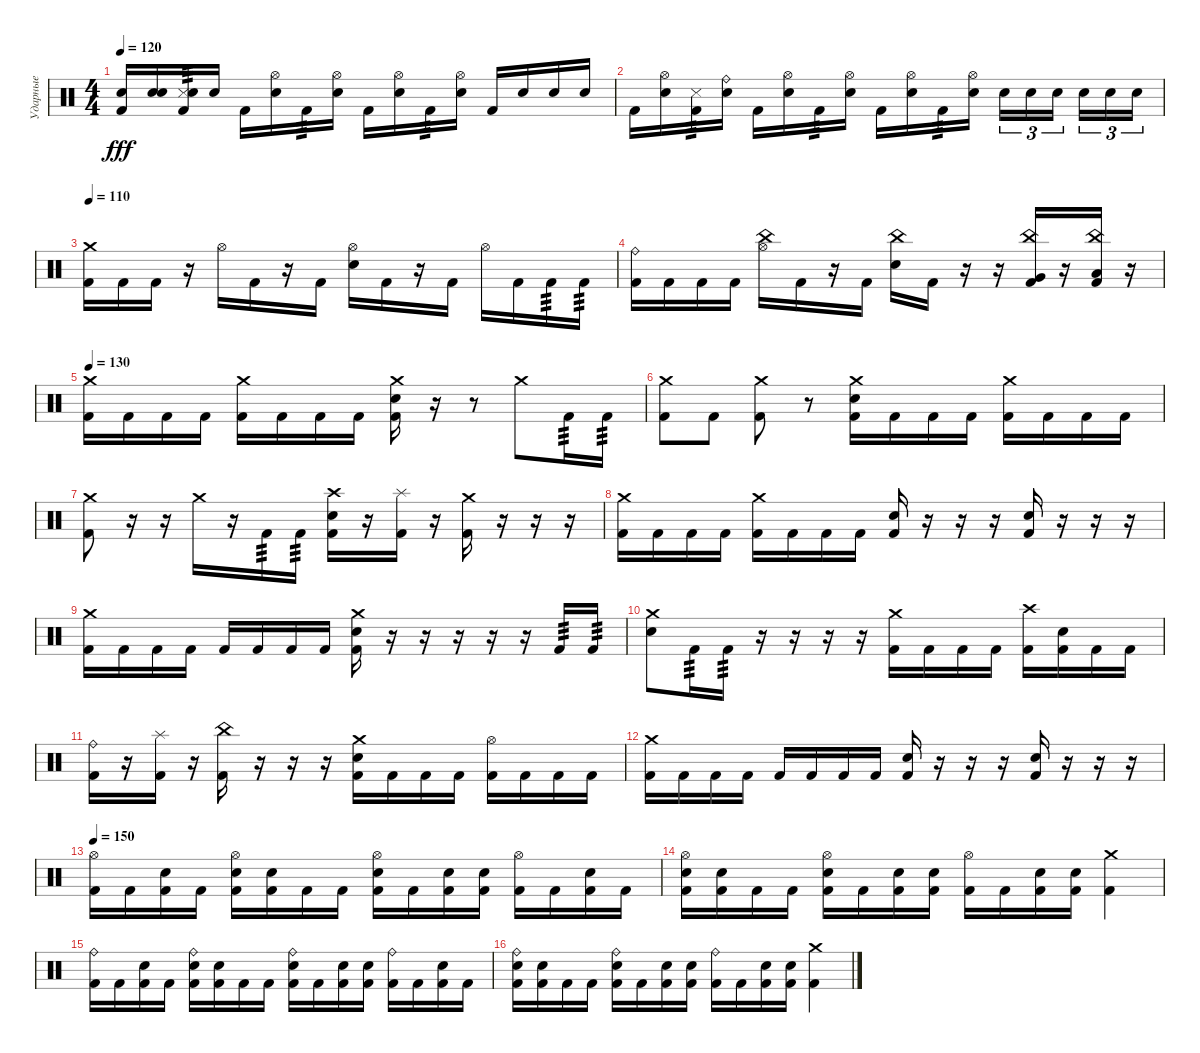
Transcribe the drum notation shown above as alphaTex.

\track ("Ударные" "Ударные") {instrument percussion}
\staff {score}
\articulation defaults
\ts (4 4)
\tempo 120
\clef neutral
\ks c
("Kick (hit) 2" "Electric Snare (hit)").16{dy fff} ("Electric Snare (hit)" "Electric Snare (hit)").16 ("Kick (hit) 2" "Snare (side stick) 3" "Electric Snare (hit)").16{tp 3} "Electric Snare (hit)".16 "Kick (hit) 2".16 ("Electric Snare (hit)" "Hi-Hat (open)").16 "Kick (hit) 2".16{tp 3} ("Electric Snare (hit)" "Hi-Hat (open)").16 "Kick (hit) 2".16 ("Electric Snare (hit)" "Hi-Hat (open)").16 "Kick (hit) 2".16{tp 3} ("Electric Snare (hit)" "Hi-Hat (open)").16 "Kick (hit) 2".16 "Electric Snare (hit)".16 "Electric Snare (hit)".16 "Electric Snare (hit)".16 |
"Kick (hit) 2".16 ("Electric Snare (hit)" "Hi-Hat (open)").16 ("Kick (hit) 2" "Snare (side stick) 3").16{tp 3} ("Electric Snare (hit)" "Ride (bell)").16 "Kick (hit) 2".16 ("Electric Snare (hit)" "Hi-Hat (open)").16 "Kick (hit) 2".16{tp 3} ("Electric Snare (hit)" "Hi-Hat (open)").16 "Kick (hit) 2".16 ("Electric Snare (hit)" "Hi-Hat (open)").16 "Kick (hit) 2".16{tp 3} ("Electric Snare (hit)" "Hi-Hat (open)").16 "Electric Snare (hit)".16{tu (3 2)} "Electric Snare (hit)".16{tu (3 2)} "Electric Snare (hit)".16{tu (3 2) beam splitsecondary} "Electric Snare (hit)".16{tu (3 2)} "Electric Snare (hit)".16{tu (3 2)} "Electric Snare (hit)".16{tu (3 2)} |
\tempo 110
("Kick (hit) 2" "Crash medium (hit)").16 "Kick (hit) 2".16 "Kick (hit) 2".16 r.16 "Hi-Hat (open)".16 "Kick (hit) 2".16 r.16 "Kick (hit) 2".16 ("Electric Snare (hit)" "Hi-Hat (open)").16 "Kick (hit) 2".16 r.16 "Kick (hit) 2".16 "Hi-Hat (open)".16 "Kick (hit) 2".16 "Kick (hit) 2".16{tp 3} "Kick (hit) 2".16{tp 3} |
("Ride (bell)" "Kick (hit) 2").16 "Kick (hit) 2".16 "Kick (hit) 2".16 "Kick (hit) 2".16 ("Hi-Hat (open)" "China (hit)").16 "Kick (hit) 2".16 r.16 "Kick (hit) 2".16 ("China (hit)" "Electric Snare (hit)").16 "Kick (hit) 2".16 r.16 r.16 ("China (hit)" "Very Low Tom (hit)" "Kick (hit) 2").16 r.16 ("China (hit)" "Low Tom (hit)" "Kick (hit) 2").16 r.16 |
\tempo 130
("Kick (hit) 2" "Crash medium (hit)").16 "Kick (hit) 2".16 "Kick (hit) 2".16 "Kick (hit) 2".16 ("Kick (hit) 2" "Crash medium (hit)").16 "Kick (hit) 2".16 "Kick (hit) 2".16 "Kick (hit) 2".16 ("Kick (hit) 2" "Electric Snare (hit)" "Crash medium (hit)").16 r.16 r.8 "Crash medium (hit)".8 "Kick (hit) 2".16{tp 3} "Kick (hit) 2".16{tp 3} |
("Kick (hit) 2" "Crash medium (hit)").8 "Kick (hit) 2".8 ("Kick (hit) 2" "Crash medium (hit)").8 r.8 ("Kick (hit) 2" "Electric Snare (hit)" "Crash medium (hit)").16 "Kick (hit) 2".16 "Kick (hit) 2".16 "Kick (hit) 2".16 ("Kick (hit) 2" "Crash medium (hit)").16 "Kick (hit) 2".16 "Kick (hit) 2".16 "Kick (hit) 2".16 |
("Crash medium (hit)" "Kick (hit) 2").8 r.16 r.16 "Crash medium (hit)".16 r.16 "Kick (hit) 2".16{tp 3} "Kick (hit) 2".16{tp 3} ("Kick (hit) 2" "Electric Snare (hit)" "Crash high (hit)").16 r.16 ("Kick (hit) 2" "Splash (hit)").16 r.16 ("Kick (hit) 2" "Crash medium (hit)").16 r.16 r.16 r.16 |
("Crash medium (hit)" "Kick (hit) 2").16 "Kick (hit) 2".16 "Kick (hit) 2".16 "Kick (hit) 2".16 ("Crash medium (hit)" "Kick (hit) 2").16 "Kick (hit) 2".16 "Kick (hit) 2".16 "Kick (hit) 2".16 ("Electric Snare (hit)" "Kick (hit) 2").16 r.16 r.16 r.16 ("Electric Snare (hit)" "Kick (hit) 2").16 r.16 r.16 r.16 |
("Kick (hit) 2" "Crash medium (hit)").16 "Kick (hit) 2".16 "Kick (hit) 2".16 "Kick (hit) 2".16 "Kick (hit) 2".16 "Kick (hit) 2".16 "Kick (hit) 2".16 "Kick (hit) 2".16 ("Kick (hit) 2" "Electric Snare (hit)" "Crash medium (hit)").16 r.16 r.16 r.16 r.16 r.16 "Kick (hit) 2".16{tp 3} "Kick (hit) 2".16{tp 3} |
("Crash medium (hit)" "Electric Snare (hit)").8 "Kick (hit) 2".16{tp 3} "Kick (hit) 2".16{tp 3} r.16 r.16 r.16 r.16 ("Crash medium (hit)" "Kick (hit) 2").16 "Kick (hit) 2".16 "Kick (hit) 2".16 "Kick (hit) 2".16 ("Crash high (hit)" "Kick (hit) 2").16 ("Electric Snare (hit)" "Kick (hit) 2").16 "Kick (hit) 2".16 "Kick (hit) 2".16 |
("Ride (bell)" "Kick (hit) 2").16 r.16 ("Splash (hit)" "Kick (hit) 2").16 r.16 ("China (hit)" "Kick (hit) 2").16 r.16 r.16 r.16 ("Crash medium (hit)" "Kick (hit) 2" "Electric Snare (hit)").16 "Kick (hit) 2".16 "Kick (hit) 2".16 "Kick (hit) 2".16 ("Hi-Hat (open)" "Kick (hit) 2").16 "Kick (hit) 2".16 "Kick (hit) 2".16 "Kick (hit) 2".16 |
("Crash medium (hit)" "Kick (hit) 2").16 "Kick (hit) 2".16 "Kick (hit) 2".16 "Kick (hit) 2".16 "Kick (hit) 2".16 "Kick (hit) 2".16 "Kick (hit) 2".16 "Kick (hit) 2".16 ("Electric Snare (hit)" "Kick (hit) 2").16 r.16 r.16 r.16 ("Electric Snare (hit)" "Kick (hit) 2").16 r.16 r.16 r.16 |
\tempo 150
("Hi-Hat (open)" "Kick (hit) 2").16 "Kick (hit) 2".16 ("Electric Snare (hit)" "Kick (hit) 2").16 "Kick (hit) 2".16 ("Electric Snare (hit)" "Hi-Hat (open)" "Kick (hit) 2").16 ("Electric Snare (hit)" "Kick (hit) 2").16 "Kick (hit) 2".16 "Kick (hit) 2".16 ("Electric Snare (hit)" "Hi-Hat (open)" "Kick (hit) 2").16 "Kick (hit) 2".16 ("Electric Snare (hit)" "Kick (hit) 2").16 ("Electric Snare (hit)" "Kick (hit) 2").16 ("Hi-Hat (open)" "Kick (hit) 2").16 "Kick (hit) 2".16 ("Electric Snare (hit)" "Kick (hit) 2").16 "Kick (hit) 2".16 |
("Electric Snare (hit)" "Hi-Hat (open)" "Kick (hit) 2").16 ("Electric Snare (hit)" "Kick (hit) 2").16 "Kick (hit) 2".16 "Kick (hit) 2".16 ("Electric Snare (hit)" "Hi-Hat (open)" "Kick (hit) 2").16 "Kick (hit) 2".16 ("Electric Snare (hit)" "Kick (hit) 2").16 ("Electric Snare (hit)" "Kick (hit) 2").16 ("Hi-Hat (open)" "Kick (hit) 2").16 "Kick (hit) 2".16 ("Electric Snare (hit)" "Kick (hit) 2").16 ("Electric Snare (hit)" "Kick (hit) 2").16 ("Crash medium (hit)" "Kick (hit) 2").4 |
("Ride (bell)" "Kick (hit) 2").16 "Kick (hit) 2".16 ("Electric Snare (hit)" "Kick (hit) 2").16 "Kick (hit) 2".16 ("Electric Snare (hit)" "Ride (bell)" "Kick (hit) 2").16 ("Electric Snare (hit)" "Kick (hit) 2").16 "Kick (hit) 2".16 "Kick (hit) 2".16 ("Electric Snare (hit)" "Ride (bell)" "Kick (hit) 2").16 "Kick (hit) 2".16 ("Electric Snare (hit)" "Kick (hit) 2").16 ("Electric Snare (hit)" "Kick (hit) 2").16 ("Ride (bell)" "Kick (hit) 2").16 "Kick (hit) 2".16 ("Electric Snare (hit)" "Kick (hit) 2").16 "Kick (hit) 2".16 |
("Electric Snare (hit)" "Ride (bell)" "Kick (hit) 2").16 ("Electric Snare (hit)" "Kick (hit) 2").16 "Kick (hit) 2".16 "Kick (hit) 2".16 ("Electric Snare (hit)" "Ride (bell)" "Kick (hit) 2").16 "Kick (hit) 2".16 ("Electric Snare (hit)" "Kick (hit) 2").16 ("Electric Snare (hit)" "Kick (hit) 2").16 ("Ride (bell)" "Kick (hit) 2").16 "Kick (hit) 2".16 ("Electric Snare (hit)" "Kick (hit) 2").16 ("Electric Snare (hit)" "Kick (hit) 2").16 ("Crash medium (hit)" "Kick (hit) 2").4
